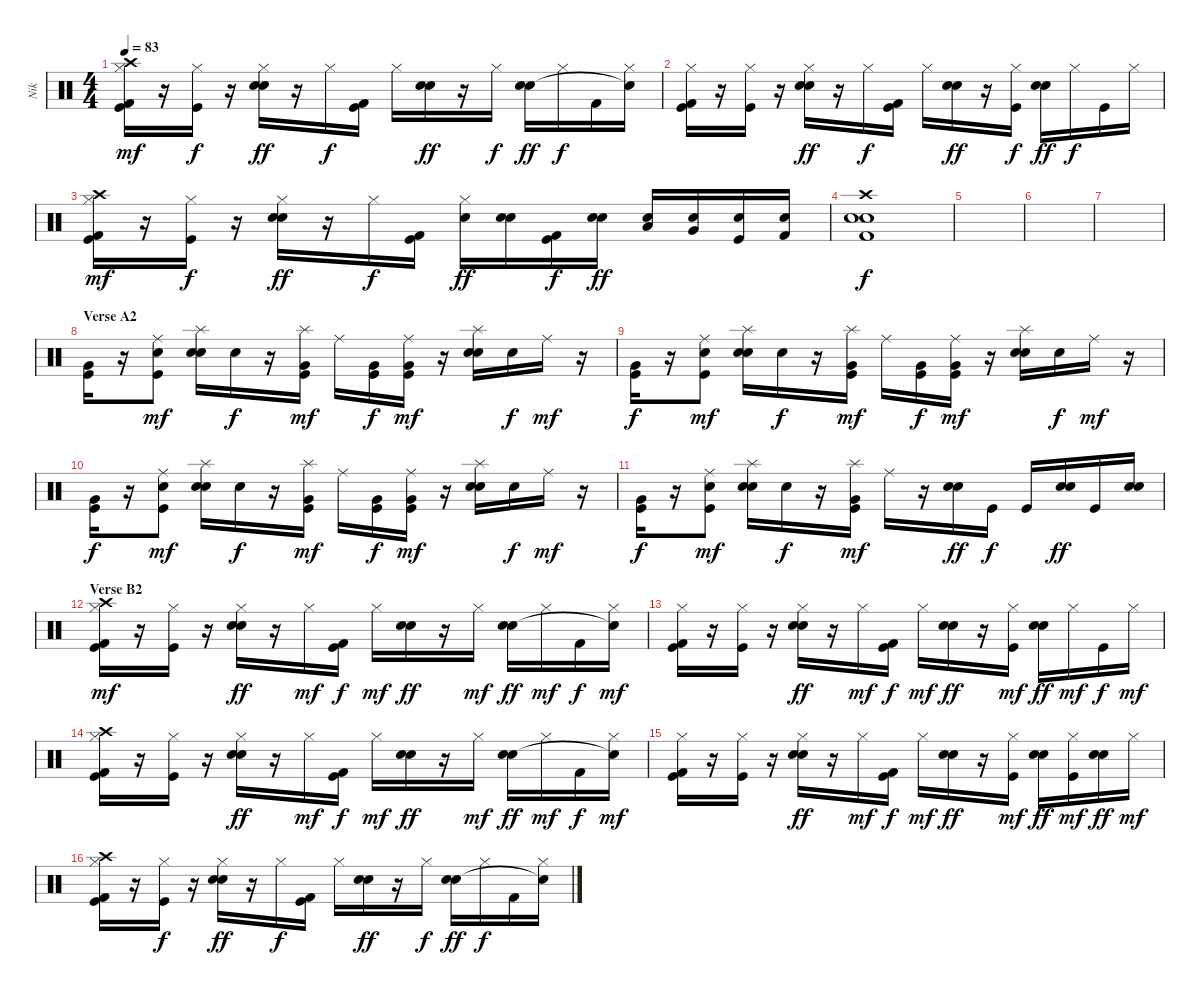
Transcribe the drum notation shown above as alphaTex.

\track ("Nik" "Nik") {instrument percussion}
\staff {score}
\articulation defaults
\ts (4 4)
\tempo 83
\clef neutral
\ks c
("Hi-Hat (closed)" "Crash high (hit)" "Kick (hit) 2" "Kick (hit)").16{dy mf} r.16 ("Hi-Hat (closed)" "Kick (hit)").16{dy f} r.16 ("Hi-Hat (closed)" "Electric Snare (hit)" "Electric Snare (hit)").16{dy ff} r.16 "Hi-Hat (closed)".16{dy f} ("Kick (hit) 2" "Kick (hit)").16 "Hi-Hat (closed)".16 ("Electric Snare (hit)" "Electric Snare (hit)").16{dy ff} r.16 "Hi-Hat (closed)".16{dy f} ("Electric Snare (hit)" "Electric Snare (hit)").16{dy ff} "Hi-Hat (closed)".16{dy f} "Kick (hit) 2".16 ("Hi-Hat (closed)" "Snare (hit)"{t}).16 |
("Hi-Hat (closed)" "Kick (hit) 2" "Kick (hit)").16 r.16 ("Hi-Hat (closed)" "Kick (hit)").16 r.16 ("Hi-Hat (closed)" "Electric Snare (hit)" "Electric Snare (hit)").16{dy ff} r.16 "Hi-Hat (closed)".16{dy f} ("Kick (hit) 2" "Kick (hit)").16 "Hi-Hat (closed)".16 ("Electric Snare (hit)" "Electric Snare (hit)").16{dy ff} r.16 ("Hi-Hat (closed)" "Kick (hit)").16{dy f} ("Electric Snare (hit)" "Electric Snare (hit)").16{dy ff} "Hi-Hat (closed)".16{dy f} "Kick (hit)".16 "Hi-Hat (closed)".16 |
("Hi-Hat (closed)" "Crash high (hit)" "Kick (hit) 2" "Kick (hit)").16{dy mf} r.16 ("Hi-Hat (closed)" "Kick (hit)").16{dy f} r.16 ("Hi-Hat (closed)" "Electric Snare (hit)" "Electric Snare (hit)").16{dy ff} r.16 "Hi-Hat (closed)".16{dy f} ("Kick (hit) 2" "Kick (hit)").16 ("Hi-Hat (closed)" "Electric Snare (hit)").16{dy ff} ("Electric Snare (hit)" "Electric Snare (hit)").16 ("Kick (hit)" "Kick (hit) 2").16{dy f} ("Electric Snare (hit)" "Electric Snare (hit)").16{dy ff} ("Electric Snare (hit)" "Low Floor Tom (hit)").16 ("Electric Snare (hit)" "Very Low Tom (hit)").16 ("Electric Snare (hit)" "Kick (hit)").16 ("Electric Snare (hit)" "Kick (hit) 2").16 |
\section ("" "")
("Crash high (hit)" "Electric Snare (hit)" "Electric Snare (hit)" "Kick (hit) 2").1{dy f} |
|
|
|
\section ("" "Verse A2")
("Kick (hit)" "Very Low Tom (hit)").16{volume 13} r.16 ("Ride (middle)" "Kick (hit)" "Electric Snare (hit)").8{dy mf} ("Splash (hit)" "Electric Snare (hit)" "Electric Snare (hit)").16 "Electric Snare (hit)".16{dy f} r.16 ("Splash (hit)" "Kick (hit)" "Very Low Tom (hit)").16{dy mf} "Ride (middle)".16 ("Kick (hit)" "Very Low Tom (hit)").16{dy f} ("Ride (middle)" "Kick (hit)" "Very Low Tom (hit)").16{dy mf} r.16 ("Splash (hit)" "Electric Snare (hit)" "Electric Snare (hit)").16 "Electric Snare (hit)".16{dy f} "Ride (middle)".16{dy mf} r.16 |
("Kick (hit)" "Very Low Tom (hit)").16{dy f} r.16 ("Ride (middle)" "Kick (hit)" "Electric Snare (hit)").8{dy mf} ("Splash (hit)" "Electric Snare (hit)" "Electric Snare (hit)").16 "Electric Snare (hit)".16{dy f} r.16 ("Splash (hit)" "Kick (hit)" "Very Low Tom (hit)").16{dy mf} "Ride (middle)".16 ("Kick (hit)" "Very Low Tom (hit)").16{dy f} ("Ride (middle)" "Kick (hit)" "Very Low Tom (hit)").16{dy mf} r.16 ("Splash (hit)" "Electric Snare (hit)" "Electric Snare (hit)").16 "Electric Snare (hit)".16{dy f} "Ride (middle)".16{dy mf} r.16 |
("Kick (hit)" "Very Low Tom (hit)").16{dy f} r.16 ("Ride (middle)" "Kick (hit)" "Electric Snare (hit)").8{dy mf} ("Splash (hit)" "Electric Snare (hit)" "Electric Snare (hit)").16 "Electric Snare (hit)".16{dy f} r.16 ("Splash (hit)" "Kick (hit)" "Very Low Tom (hit)").16{dy mf} "Ride (middle)".16 ("Kick (hit)" "Very Low Tom (hit)").16{dy f} ("Ride (middle)" "Kick (hit)" "Very Low Tom (hit)").16{dy mf} r.16 ("Splash (hit)" "Electric Snare (hit)" "Electric Snare (hit)").16 "Electric Snare (hit)".16{dy f} "Ride (middle)".16{dy mf} r.16 |
("Kick (hit)" "Very Low Tom (hit)").16{dy f} r.16 ("Ride (middle)" "Kick (hit)" "Electric Snare (hit)").8{dy mf} ("Splash (hit)" "Electric Snare (hit)" "Electric Snare (hit)").16 "Electric Snare (hit)".16{dy f} r.16 ("Splash (hit)" "Kick (hit)" "Very Low Tom (hit)").16{dy mf} "Ride (middle)".16 r.16 ("Electric Snare (hit)" "Electric Snare (hit)").16{dy ff volume 16} "Kick (hit)".16{dy f} "Kick (hit)".16 ("Electric Snare (hit)" "Electric Snare (hit)").16{dy ff} "Kick (hit)".16 ("Electric Snare (hit)" "Electric Snare (hit)").16 |
\section ("" "Verse B2")
("Hi-Hat (closed)" "Crash high (hit)" "Kick (hit) 2" "Kick (hit)").16{dy mf} r.16 ("Hi-Hat (closed)" "Kick (hit)").16 r.16 ("Hi-Hat (closed)" "Electric Snare (hit)" "Electric Snare (hit)").16{dy ff} r.16 "Hi-Hat (closed)".16{dy mf} ("Kick (hit) 2" "Kick (hit)").16{dy f} "Hi-Hat (closed)".16{dy mf} ("Electric Snare (hit)" "Electric Snare (hit)").16{dy ff} r.16 "Hi-Hat (closed)".16{dy mf} ("Electric Snare (hit)" "Electric Snare (hit)").16{dy ff} "Hi-Hat (closed)".16{dy mf} "Kick (hit) 2".16{dy f} ("Hi-Hat (closed)" "Snare (hit)"{t}).16{dy mf} |
("Hi-Hat (closed)" "Kick (hit) 2" "Kick (hit)").16 r.16 ("Hi-Hat (closed)" "Kick (hit)").16 r.16 ("Hi-Hat (closed)" "Electric Snare (hit)" "Electric Snare (hit)").16{dy ff} r.16 "Hi-Hat (closed)".16{dy mf} ("Kick (hit) 2" "Kick (hit)").16{dy f} "Hi-Hat (closed)".16{dy mf} ("Electric Snare (hit)" "Electric Snare (hit)").16{dy ff} r.16 ("Hi-Hat (closed)" "Kick (hit)").16{dy mf} ("Electric Snare (hit)" "Electric Snare (hit)").16{dy ff} "Hi-Hat (closed)".16{dy mf} "Kick (hit)".16{dy f} "Hi-Hat (closed)".16{dy mf} |
("Hi-Hat (closed)" "Crash high (hit)" "Kick (hit) 2" "Kick (hit)").16 r.16 ("Hi-Hat (closed)" "Kick (hit)").16 r.16 ("Hi-Hat (closed)" "Electric Snare (hit)" "Electric Snare (hit)").16{dy ff} r.16 "Hi-Hat (closed)".16{dy mf} ("Kick (hit) 2" "Kick (hit)").16{dy f} "Hi-Hat (closed)".16{dy mf} ("Electric Snare (hit)" "Electric Snare (hit)").16{dy ff} r.16 "Hi-Hat (closed)".16{dy mf} ("Electric Snare (hit)" "Electric Snare (hit)").16{dy ff} "Hi-Hat (closed)".16{dy mf} "Kick (hit) 2".16{dy f} ("Hi-Hat (closed)" "Snare (hit)"{t}).16{dy mf} |
("Hi-Hat (closed)" "Kick (hit) 2" "Kick (hit)").16 r.16 ("Hi-Hat (closed)" "Kick (hit)").16 r.16 ("Hi-Hat (closed)" "Electric Snare (hit)" "Electric Snare (hit)").16{dy ff} r.16 "Hi-Hat (closed)".16{dy mf} ("Kick (hit) 2" "Kick (hit)").16{dy f} "Hi-Hat (closed)".16{dy mf} ("Electric Snare (hit)" "Electric Snare (hit)").16{dy ff} r.16 ("Hi-Hat (closed)" "Kick (hit)").16{dy mf} ("Electric Snare (hit)" "Electric Snare (hit)").16{dy ff} ("Hi-Hat (closed)" "Kick (hit)").16{dy mf} ("Electric Snare (hit)" "Electric Snare (hit)").16{dy ff} "Hi-Hat (closed)".16{dy mf} |
("Hi-Hat (closed)" "Crash high (hit)" "Kick (hit) 2" "Kick (hit)").16 r.16 ("Hi-Hat (closed)" "Kick (hit)").16{dy f} r.16 ("Hi-Hat (closed)" "Electric Snare (hit)" "Electric Snare (hit)").16{dy ff} r.16 "Hi-Hat (closed)".16{dy f} ("Kick (hit) 2" "Kick (hit)").16 "Hi-Hat (closed)".16 ("Electric Snare (hit)" "Electric Snare (hit)").16{dy ff} r.16 "Hi-Hat (closed)".16{dy f} ("Electric Snare (hit)" "Electric Snare (hit)").16{dy ff} "Hi-Hat (closed)".16{dy f} "Kick (hit) 2".16 ("Hi-Hat (closed)" "Snare (hit)"{t}).16
